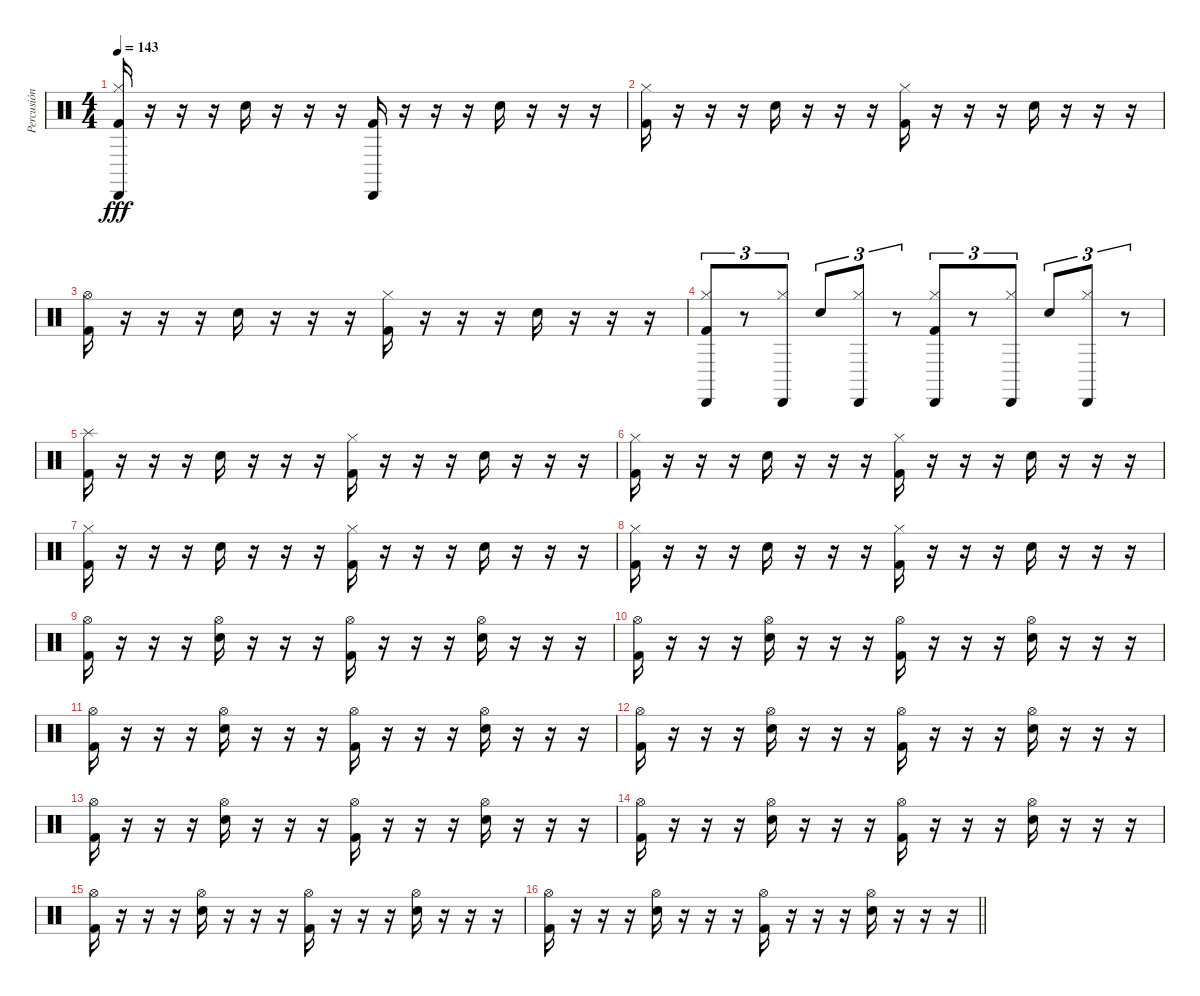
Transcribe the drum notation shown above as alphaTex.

\track ("Percusión" "Percusión") {instrument percussion}
\staff {score}
\articulation defaults
\ts (4 4)
\tempo 143
\clef neutral
\ks c
("Kick (hit) 2" "Hi-Hat (closed)" "Cabasa (hit)").16{dy fff} r.16 r.16 r.16 "Snare (hit) 2".16 r.16 r.16 r.16 ("Kick (hit) 2" "Cabasa (hit)").16 r.16 r.16 r.16 "Snare (hit) 2".16 r.16 r.16 r.16 |
("Kick (hit) 2" "Hi-Hat (closed)").16 r.16 r.16 r.16 "Snare (hit) 2".16 r.16 r.16 r.16 ("Kick (hit) 2" "Hi-Hat (closed)").16 r.16 r.16 r.16 "Snare (hit) 2".16 r.16 r.16 r.16 |
("Kick (hit) 2" "Hi-Hat (open)").16 r.16 r.16 r.16 "Snare (hit) 2".16 r.16 r.16 r.16 ("Kick (hit) 2" "Hi-Hat (closed)").16 r.16 r.16 r.16 "Snare (hit) 2".16 r.16 r.16 r.16 |
("Hi-Hat (closed)" "Cabasa (hit)" "Kick (hit) 2").8{tu (3 2)} r.8{tu (3 2)} ("Hi-Hat (closed)" "Cabasa (hit)").8{tu (3 2)} "Snare (hit) 2".8{tu (3 2)} ("Hi-Hat (closed)" "Cabasa (hit)").8{tu (3 2)} r.8{tu (3 2)} ("Hi-Hat (closed)" "Cabasa (hit)" "Kick (hit) 2").8{tu (3 2)} r.8{tu (3 2)} ("Hi-Hat (closed)" "Cabasa (hit)").8{tu (3 2)} "Snare (hit) 2".8{tu (3 2)} ("Hi-Hat (closed)" "Cabasa (hit)").8{tu (3 2)} r.8{tu (3 2)} |
("Kick (hit) 2" "Splash (hit)").16 r.16 r.16 r.16 "Snare (hit) 2".16 r.16 r.16 r.16 ("Kick (hit) 2" "Hi-Hat (closed)").16 r.16 r.16 r.16 "Snare (hit) 2".16 r.16 r.16 r.16 |
("Kick (hit) 2" "Hi-Hat (closed)").16 r.16 r.16 r.16 "Snare (hit) 2".16 r.16 r.16 r.16 ("Kick (hit) 2" "Hi-Hat (closed)").16 r.16 r.16 r.16 "Snare (hit) 2".16 r.16 r.16 r.16 |
("Kick (hit) 2" "Hi-Hat (closed)").16 r.16 r.16 r.16 "Snare (hit) 2".16 r.16 r.16 r.16 ("Kick (hit) 2" "Hi-Hat (closed)").16 r.16 r.16 r.16 "Snare (hit) 2".16 r.16 r.16 r.16 |
("Kick (hit) 2" "Hi-Hat (closed)").16 r.16 r.16 r.16 "Snare (hit) 2".16 r.16 r.16 r.16 ("Kick (hit) 2" "Hi-Hat (closed)").16 r.16 r.16 r.16 "Snare (hit) 2".16 r.16 r.16 r.16 |
("Kick (hit) 2" "Hi-Hat (open)").16 r.16 r.16 r.16 ("Snare (hit) 2" "Hi-Hat (open)").16 r.16 r.16 r.16 ("Kick (hit) 2" "Hi-Hat (open)").16 r.16 r.16 r.16 ("Snare (hit) 2" "Hi-Hat (open)").16 r.16 r.16 r.16 |
("Kick (hit) 2" "Hi-Hat (open)").16 r.16 r.16 r.16 ("Snare (hit) 2" "Hi-Hat (open)").16 r.16 r.16 r.16 ("Kick (hit) 2" "Hi-Hat (open)").16 r.16 r.16 r.16 ("Snare (hit) 2" "Hi-Hat (open)").16 r.16 r.16 r.16 |
("Kick (hit) 2" "Hi-Hat (open)").16 r.16 r.16 r.16 ("Snare (hit) 2" "Hi-Hat (open)").16 r.16 r.16 r.16 ("Kick (hit) 2" "Hi-Hat (open)").16 r.16 r.16 r.16 ("Snare (hit) 2" "Hi-Hat (open)").16 r.16 r.16 r.16 |
("Kick (hit) 2" "Hi-Hat (open)").16 r.16 r.16 r.16 ("Snare (hit) 2" "Hi-Hat (open)").16 r.16 r.16 r.16 ("Kick (hit) 2" "Hi-Hat (open)").16 r.16 r.16 r.16 ("Snare (hit) 2" "Hi-Hat (open)").16 r.16 r.16 r.16 |
("Kick (hit) 2" "Hi-Hat (open)").16 r.16 r.16 r.16 ("Snare (hit) 2" "Hi-Hat (open)").16 r.16 r.16 r.16 ("Kick (hit) 2" "Hi-Hat (open)").16 r.16 r.16 r.16 ("Snare (hit) 2" "Hi-Hat (open)").16 r.16 r.16 r.16 |
("Kick (hit) 2" "Hi-Hat (open)").16 r.16 r.16 r.16 ("Snare (hit) 2" "Hi-Hat (open)").16 r.16 r.16 r.16 ("Kick (hit) 2" "Hi-Hat (open)").16 r.16 r.16 r.16 ("Snare (hit) 2" "Hi-Hat (open)").16 r.16 r.16 r.16 |
("Kick (hit) 2" "Hi-Hat (open)").16 r.16 r.16 r.16 ("Snare (hit) 2" "Hi-Hat (open)").16 r.16 r.16 r.16 ("Kick (hit) 2" "Hi-Hat (open)").16 r.16 r.16 r.16 ("Snare (hit) 2" "Hi-Hat (open)").16 r.16 r.16 r.16 |
\barLineRight lightlight
("Kick (hit) 2" "Hi-Hat (open)").16 r.16 r.16 r.16 ("Snare (hit) 2" "Hi-Hat (open)").16 r.16 r.16 r.16 ("Kick (hit) 2" "Hi-Hat (open)").16 r.16 r.16 r.16 ("Snare (hit) 2" "Hi-Hat (open)").16 r.16 r.16 r.16
